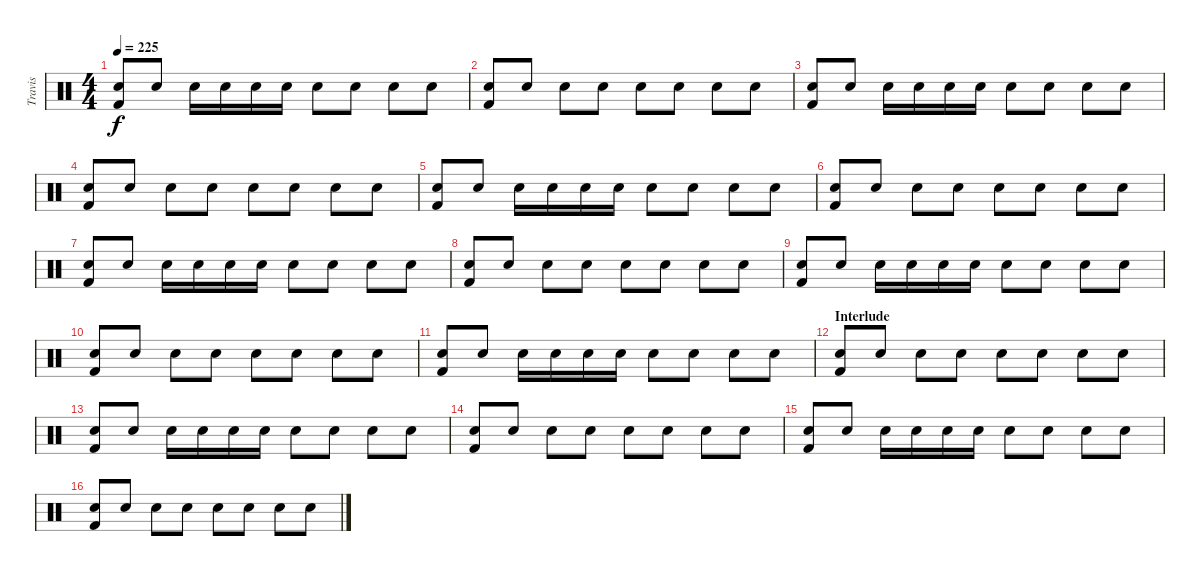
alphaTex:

\track ("Travis" "Travis") {instrument percussion}
\staff {score}
\articulation defaults
\ts (4 4)
\tempo 225
\clef neutral
\ks c
("Snare (hit) 2" "Kick (hit) 2").8{dy f} "Snare (hit) 2".8 "Snare (hit) 2".16 "Snare (hit) 2".16 "Snare (hit) 2".16 "Snare (hit) 2".16 "Electric Snare (hit)".8 "Electric Snare (hit)".8 "Snare (hit) 2".8 "Snare (hit) 2".8 |
("Snare (hit) 2" "Kick (hit) 2").8 "Snare (hit) 2".8 "Snare (hit) 2".8 "Electric Snare (hit)".8 "Snare (hit) 2".8 "Snare (hit) 2".8 "Electric Snare (hit)".8 "Snare (hit) 2".8 |
("Snare (hit) 2" "Kick (hit) 2").8 "Snare (hit) 2".8 "Snare (hit) 2".16 "Snare (hit) 2".16 "Snare (hit) 2".16 "Snare (hit) 2".16 "Electric Snare (hit)".8 "Electric Snare (hit)".8 "Snare (hit) 2".8 "Snare (hit) 2".8 |
("Snare (hit) 2" "Kick (hit) 2").8 "Snare (hit) 2".8 "Snare (hit) 2".8 "Electric Snare (hit)".8 "Snare (hit) 2".8 "Snare (hit) 2".8 "Electric Snare (hit)".8 "Snare (hit) 2".8 |
("Snare (hit) 2" "Kick (hit) 2").8 "Snare (hit) 2".8 "Snare (hit) 2".16 "Snare (hit) 2".16 "Snare (hit) 2".16 "Snare (hit) 2".16 "Electric Snare (hit)".8 "Electric Snare (hit)".8 "Snare (hit) 2".8 "Snare (hit) 2".8 |
("Snare (hit) 2" "Kick (hit) 2").8 "Snare (hit) 2".8 "Snare (hit) 2".8 "Electric Snare (hit)".8 "Snare (hit) 2".8 "Snare (hit) 2".8 "Electric Snare (hit)".8 "Snare (hit) 2".8 |
("Snare (hit) 2" "Kick (hit) 2").8 "Snare (hit) 2".8 "Snare (hit) 2".16 "Snare (hit) 2".16 "Snare (hit) 2".16 "Snare (hit) 2".16 "Electric Snare (hit)".8 "Electric Snare (hit)".8 "Snare (hit) 2".8 "Snare (hit) 2".8 |
("Snare (hit) 2" "Kick (hit) 2").8 "Snare (hit) 2".8 "Snare (hit) 2".8 "Electric Snare (hit)".8 "Snare (hit) 2".8 "Snare (hit) 2".8 "Electric Snare (hit)".8 "Snare (hit) 2".8 |
("Snare (hit) 2" "Kick (hit) 2").8 "Snare (hit) 2".8 "Snare (hit) 2".16 "Snare (hit) 2".16 "Snare (hit) 2".16 "Snare (hit) 2".16 "Electric Snare (hit)".8 "Electric Snare (hit)".8 "Snare (hit) 2".8 "Snare (hit) 2".8 |
("Snare (hit) 2" "Kick (hit) 2").8 "Snare (hit) 2".8 "Snare (hit) 2".8 "Electric Snare (hit)".8 "Snare (hit) 2".8 "Snare (hit) 2".8 "Electric Snare (hit)".8 "Snare (hit) 2".8 |
("Snare (hit) 2" "Kick (hit) 2").8 "Snare (hit) 2".8 "Snare (hit) 2".16 "Snare (hit) 2".16 "Snare (hit) 2".16 "Snare (hit) 2".16 "Electric Snare (hit)".8 "Electric Snare (hit)".8 "Snare (hit) 2".8 "Snare (hit) 2".8 |
\section ("" "Interlude")
("Snare (hit) 2" "Kick (hit) 2").8 "Snare (hit) 2".8 "Snare (hit) 2".8 "Electric Snare (hit)".8 "Snare (hit) 2".8 "Snare (hit) 2".8 "Electric Snare (hit)".8 "Snare (hit) 2".8 |
("Snare (hit) 2" "Kick (hit) 2").8 "Snare (hit) 2".8 "Snare (hit) 2".16 "Snare (hit) 2".16 "Snare (hit) 2".16 "Snare (hit) 2".16 "Electric Snare (hit)".8 "Electric Snare (hit)".8 "Snare (hit) 2".8 "Snare (hit) 2".8 |
("Snare (hit) 2" "Kick (hit) 2").8 "Snare (hit) 2".8 "Snare (hit) 2".8 "Electric Snare (hit)".8 "Snare (hit) 2".8 "Snare (hit) 2".8 "Electric Snare (hit)".8 "Snare (hit) 2".8 |
("Snare (hit) 2" "Kick (hit) 2").8 "Snare (hit) 2".8 "Snare (hit) 2".16 "Snare (hit) 2".16 "Snare (hit) 2".16 "Snare (hit) 2".16 "Electric Snare (hit)".8 "Electric Snare (hit)".8 "Snare (hit) 2".8 "Snare (hit) 2".8 |
("Snare (hit) 2" "Kick (hit) 2").8 "Snare (hit) 2".8 "Snare (hit) 2".8 "Electric Snare (hit)".8 "Snare (hit) 2".8 "Snare (hit) 2".8 "Electric Snare (hit)".8 "Snare (hit) 2".8
